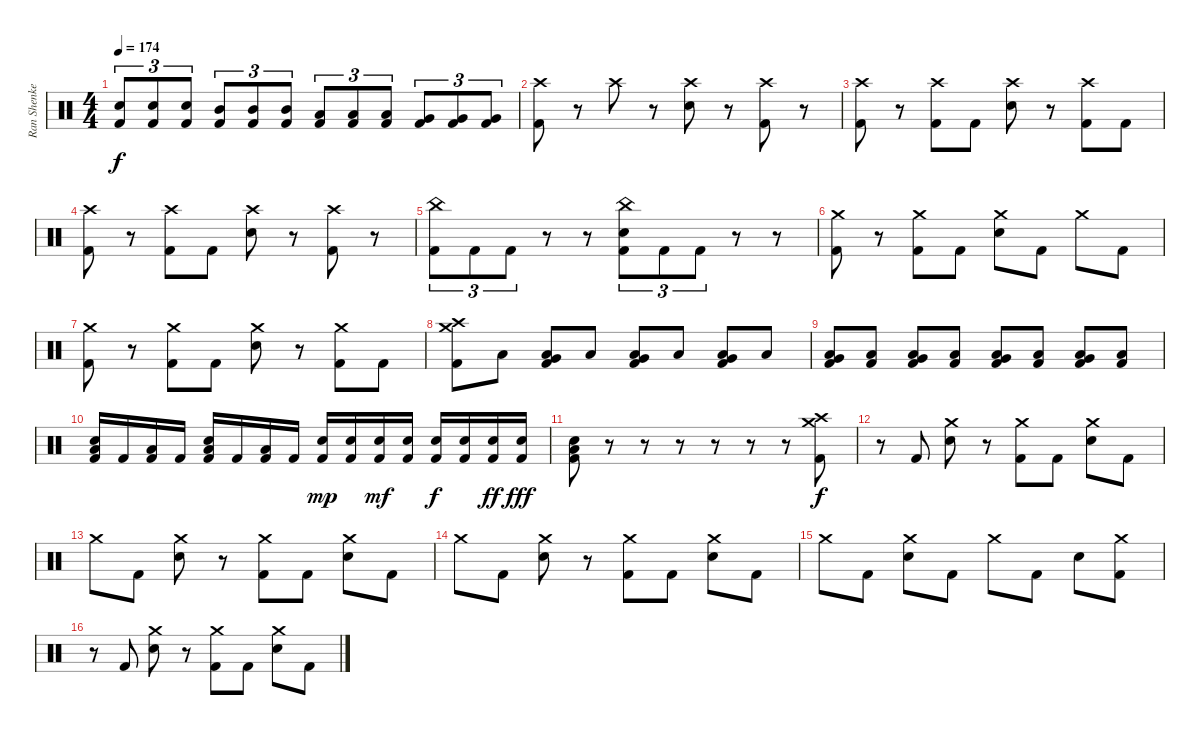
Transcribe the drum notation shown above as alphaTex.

\track ("Ran Shenkerman" "Ran Shenke") {instrument percussion}
\staff {score}
\articulation defaults
\ts (4 4)
\tempo 174
\clef neutral
\ks c
("Snare (hit) 2" "Kick (hit) 2").8{tu (3 2) dy f} ("Snare (hit) 2" "Kick (hit) 2").8{tu (3 2)} ("Snare (hit) 2" "Kick (hit) 2").8{tu (3 2)} ("Mid Tom (hit)" "Kick (hit) 2").8{tu (3 2)} ("Mid Tom (hit)" "Kick (hit) 2").8{tu (3 2)} ("Mid Tom (hit)" "Kick (hit) 2").8{tu (3 2)} ("Low Tom (hit)" "Kick (hit) 2").8{tu (3 2)} ("Low Tom (hit)" "Kick (hit) 2").8{tu (3 2)} ("Low Tom (hit)" "Kick (hit) 2").8{tu (3 2)} ("Very Low Tom (hit)" "Kick (hit) 2").8{tu (3 2)} ("Very Low Tom (hit)" "Kick (hit) 2").8{tu (3 2)} ("Very Low Tom (hit)" "Kick (hit) 2").8{tu (3 2)} |
("Crash high (hit)" "Kick (hit) 2").8 r.8 "Crash high (hit)".8 r.8 ("Crash high (hit)" "Snare (hit) 2").8 r.8 ("Crash high (hit)" "Kick (hit) 2").8 r.8 |
("Crash high (hit)" "Kick (hit) 2").8 r.8 ("Crash high (hit)" "Kick (hit) 2").8 "Kick (hit) 2".8 ("Crash high (hit)" "Snare (hit) 2").8 r.8 ("Crash high (hit)" "Kick (hit) 2").8 "Kick (hit) 2".8 |
("Crash high (hit)" "Kick (hit) 2").8 r.8 ("Crash high (hit)" "Kick (hit) 2").8 "Kick (hit) 2".8 ("Crash high (hit)" "Snare (hit) 2").8 r.8 ("Crash high (hit)" "Kick (hit) 2").8 r.8 |
("China (hit)" "Kick (hit) 2").8{tu (3 2)} "Kick (hit) 2".8{tu (3 2)} "Kick (hit) 2".8{tu (3 2)} r.8 r.8 ("China (hit)" "Snare (hit) 2" "Kick (hit) 2").8{tu (3 2)} "Kick (hit) 2".8{tu (3 2)} "Kick (hit) 2".8{tu (3 2)} r.8 r.8 |
("Crash medium (hit)" "Kick (hit) 2").8 r.8 ("Crash medium (hit)" "Kick (hit) 2").8 "Kick (hit) 2".8 ("Crash medium (hit)" "Snare (hit) 2").8 "Kick (hit) 2".8 "Crash medium (hit)".8 "Kick (hit) 2".8 |
("Crash medium (hit)" "Kick (hit) 2").8 r.8 ("Crash medium (hit)" "Kick (hit) 2").8 "Kick (hit) 2".8 ("Crash medium (hit)" "Snare (hit) 2").8 r.8 ("Crash medium (hit)" "Kick (hit) 2").8 "Kick (hit) 2".8 |
("Crash medium (hit)" "Crash high (hit)" "Kick (hit) 2").8 "Low Floor Tom (hit)".8 ("Very Low Tom (hit)" "Low Floor Tom (hit)" "Kick (hit) 2").8 "Low Floor Tom (hit)".8 ("Very Low Tom (hit)" "Low Floor Tom (hit)" "Kick (hit) 2").8 "Low Floor Tom (hit)".8 ("Very Low Tom (hit)" "Low Floor Tom (hit)" "Kick (hit) 2").8 "Low Floor Tom (hit)".8 |
("Very Low Tom (hit)" "Low Floor Tom (hit)" "Kick (hit) 2").8 ("Low Floor Tom (hit)" "Kick (hit) 2").8 ("Very Low Tom (hit)" "Low Floor Tom (hit)" "Kick (hit) 2").8 ("Low Floor Tom (hit)" "Kick (hit) 2").8 ("Very Low Tom (hit)" "Low Floor Tom (hit)" "Kick (hit) 2").8 ("Low Floor Tom (hit)" "Kick (hit) 2").8 ("Very Low Tom (hit)" "Low Floor Tom (hit)" "Kick (hit) 2").8 ("Low Floor Tom (hit)" "Kick (hit) 2").8 |
("Snare (hit) 2" "Low Floor Tom (hit)" "Kick (hit) 2").16 "Kick (hit) 2".16 ("Low Floor Tom (hit)" "Kick (hit) 2").16 "Kick (hit) 2".16 ("Snare (hit) 2" "Low Floor Tom (hit)" "Kick (hit) 2").16 "Kick (hit) 2".16 ("Low Floor Tom (hit)" "Kick (hit) 2").16 "Kick (hit) 2".16 ("Snare (hit) 2" "Kick (hit) 2").16{dy mp} ("Snare (hit) 2" "Kick (hit) 2").16 ("Snare (hit) 2" "Kick (hit) 2").16{dy mf} ("Snare (hit) 2" "Kick (hit) 2").16 ("Snare (hit) 2" "Kick (hit) 2").16{dy f} ("Snare (hit) 2" "Kick (hit) 2").16 ("Snare (hit) 2" "Kick (hit) 2").16{dy ff} ("Snare (hit) 2" "Kick (hit) 2").16{dy fff} |
("Snare (hit) 2" "Low Floor Tom (hit)" "Kick (hit) 2").8 r.8 r.8 r.8 r.8 r.8 r.8 ("Crash medium (hit)" "Crash high (hit)" "Kick (hit) 2").8{dy f} |
r.8 "Kick (hit) 2".8 ("Crash medium (hit)" "Snare (hit) 2").8 r.8 ("Crash medium (hit)" "Kick (hit) 2").8 "Kick (hit) 2".8 ("Crash medium (hit)" "Snare (hit) 2").8 "Kick (hit) 2".8 |
"Crash medium (hit)".8 "Kick (hit) 2".8 ("Crash medium (hit)" "Snare (hit) 2").8 r.8 ("Crash medium (hit)" "Kick (hit) 2").8 "Kick (hit) 2".8 ("Crash medium (hit)" "Snare (hit) 2").8 "Kick (hit) 2".8 |
"Crash medium (hit)".8 "Kick (hit) 2".8 ("Crash medium (hit)" "Snare (hit) 2").8 r.8 ("Crash medium (hit)" "Kick (hit) 2").8 "Kick (hit) 2".8 ("Crash medium (hit)" "Snare (hit) 2").8 "Kick (hit) 2".8 |
"Crash medium (hit)".8 "Kick (hit) 2".8 ("Crash medium (hit)" "Snare (hit) 2").8 "Kick (hit) 2".8 "Crash medium (hit)".8 "Kick (hit) 2".8 "Snare (hit) 2".8 ("Crash medium (hit)" "Kick (hit) 2").8 |
r.8 "Kick (hit) 2".8 ("Crash medium (hit)" "Snare (hit) 2").8 r.8 ("Crash medium (hit)" "Kick (hit) 2").8 "Kick (hit) 2".8 ("Crash medium (hit)" "Snare (hit) 2").8 "Kick (hit) 2".8
